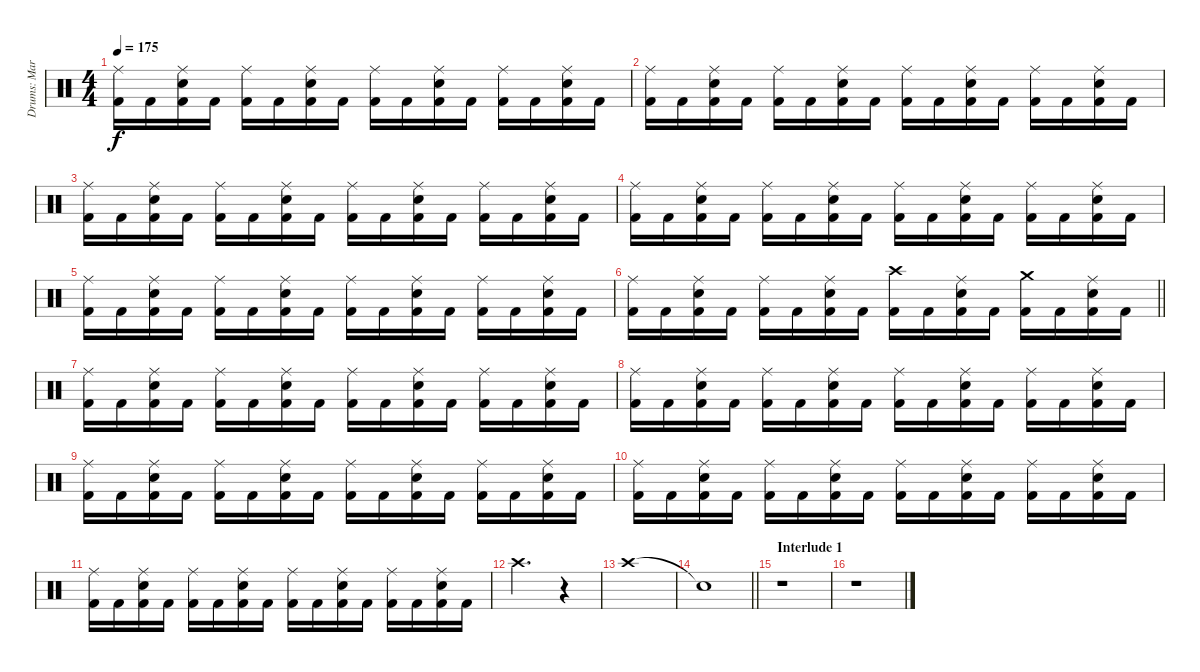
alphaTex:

\track ("Drums: Martin Herzinger" "Drums: Mar") {instrument percussion}
\staff {score}
\articulation defaults
\ts (4 4)
\tempo 175
\clef neutral
\ks aminor
("Ride (middle)" "Kick (hit) 2").16{dy f} "Kick (hit) 2".16 ("Ride (middle)" "Snare (hit) 2" "Kick (hit) 2").16 "Kick (hit) 2".16 ("Ride (middle)" "Kick (hit) 2").16 "Kick (hit) 2".16 ("Ride (middle)" "Snare (hit) 2" "Kick (hit) 2").16 "Kick (hit) 2".16 ("Ride (middle)" "Kick (hit) 2").16 "Kick (hit) 2".16 ("Ride (middle)" "Snare (hit) 2" "Kick (hit) 2").16 "Kick (hit) 2".16 ("Ride (middle)" "Kick (hit) 2").16 "Kick (hit) 2".16 ("Ride (middle)" "Snare (hit) 2" "Kick (hit) 2").16 "Kick (hit) 2".16 |
("Ride (middle)" "Kick (hit) 2").16 "Kick (hit) 2".16 ("Ride (middle)" "Snare (hit) 2" "Kick (hit) 2").16 "Kick (hit) 2".16 ("Ride (middle)" "Kick (hit) 2").16 "Kick (hit) 2".16 ("Ride (middle)" "Snare (hit) 2" "Kick (hit) 2").16 "Kick (hit) 2".16 ("Ride (middle)" "Kick (hit) 2").16 "Kick (hit) 2".16 ("Ride (middle)" "Snare (hit) 2" "Kick (hit) 2").16 "Kick (hit) 2".16 ("Ride (middle)" "Kick (hit) 2").16 "Kick (hit) 2".16 ("Ride (middle)" "Snare (hit) 2" "Kick (hit) 2").16 "Kick (hit) 2".16 |
("Ride (middle)" "Kick (hit) 2").16 "Kick (hit) 2".16 ("Ride (middle)" "Snare (hit) 2" "Kick (hit) 2").16 "Kick (hit) 2".16 ("Ride (middle)" "Kick (hit) 2").16 "Kick (hit) 2".16 ("Ride (middle)" "Snare (hit) 2" "Kick (hit) 2").16 "Kick (hit) 2".16 ("Ride (middle)" "Kick (hit) 2").16 "Kick (hit) 2".16 ("Ride (middle)" "Snare (hit) 2" "Kick (hit) 2").16 "Kick (hit) 2".16 ("Ride (middle)" "Kick (hit) 2").16 "Kick (hit) 2".16 ("Ride (middle)" "Snare (hit) 2" "Kick (hit) 2").16 "Kick (hit) 2".16 |
("Ride (middle)" "Kick (hit) 2").16 "Kick (hit) 2".16 ("Ride (middle)" "Snare (hit) 2" "Kick (hit) 2").16 "Kick (hit) 2".16 ("Ride (middle)" "Kick (hit) 2").16 "Kick (hit) 2".16 ("Ride (middle)" "Snare (hit) 2" "Kick (hit) 2").16 "Kick (hit) 2".16 ("Ride (middle)" "Kick (hit) 2").16 "Kick (hit) 2".16 ("Ride (middle)" "Snare (hit) 2" "Kick (hit) 2").16 "Kick (hit) 2".16 ("Ride (middle)" "Kick (hit) 2").16 "Kick (hit) 2".16 ("Ride (middle)" "Snare (hit) 2" "Kick (hit) 2").16 "Kick (hit) 2".16 |
("Ride (middle)" "Kick (hit) 2").16 "Kick (hit) 2".16 ("Ride (middle)" "Snare (hit) 2" "Kick (hit) 2").16 "Kick (hit) 2".16 ("Ride (middle)" "Kick (hit) 2").16 "Kick (hit) 2".16 ("Ride (middle)" "Snare (hit) 2" "Kick (hit) 2").16 "Kick (hit) 2".16 ("Ride (middle)" "Kick (hit) 2").16 "Kick (hit) 2".16 ("Ride (middle)" "Snare (hit) 2" "Kick (hit) 2").16 "Kick (hit) 2".16 ("Ride (middle)" "Kick (hit) 2").16 "Kick (hit) 2".16 ("Ride (middle)" "Snare (hit) 2" "Kick (hit) 2").16 "Kick (hit) 2".16 |
\barLineRight lightlight
("Ride (middle)" "Kick (hit) 2").16 "Kick (hit) 2".16 ("Ride (middle)" "Snare (hit) 2" "Kick (hit) 2").16 "Kick (hit) 2".16 ("Ride (middle)" "Kick (hit) 2").16 "Kick (hit) 2".16 ("Ride (middle)" "Snare (hit) 2" "Kick (hit) 2").16 "Kick (hit) 2".16 ("Crash high (hit)" "Kick (hit) 2").16 "Kick (hit) 2".16 ("Ride (middle)" "Snare (hit) 2" "Kick (hit) 2").16 "Kick (hit) 2".16 ("Crash medium (hit)" "Kick (hit) 2").16 "Kick (hit) 2".16 ("Ride (middle)" "Snare (hit) 2" "Kick (hit) 2").16 "Kick (hit) 2".16 |
("Ride (middle)" "Kick (hit) 2").16 "Kick (hit) 2".16 ("Ride (middle)" "Snare (hit) 2" "Kick (hit) 2").16 "Kick (hit) 2".16 ("Ride (middle)" "Kick (hit) 2").16 "Kick (hit) 2".16 ("Ride (middle)" "Snare (hit) 2" "Kick (hit) 2").16 "Kick (hit) 2".16 ("Ride (middle)" "Kick (hit) 2").16 "Kick (hit) 2".16 ("Ride (middle)" "Snare (hit) 2" "Kick (hit) 2").16 "Kick (hit) 2".16 ("Ride (middle)" "Kick (hit) 2").16 "Kick (hit) 2".16 ("Ride (middle)" "Snare (hit) 2" "Kick (hit) 2").16 "Kick (hit) 2".16 |
("Ride (middle)" "Kick (hit) 2").16 "Kick (hit) 2".16 ("Ride (middle)" "Snare (hit) 2" "Kick (hit) 2").16 "Kick (hit) 2".16 ("Ride (middle)" "Kick (hit) 2").16 "Kick (hit) 2".16 ("Ride (middle)" "Snare (hit) 2" "Kick (hit) 2").16 "Kick (hit) 2".16 ("Ride (middle)" "Kick (hit) 2").16 "Kick (hit) 2".16 ("Ride (middle)" "Snare (hit) 2" "Kick (hit) 2").16 "Kick (hit) 2".16 ("Ride (middle)" "Kick (hit) 2").16 "Kick (hit) 2".16 ("Ride (middle)" "Snare (hit) 2" "Kick (hit) 2").16 "Kick (hit) 2".16 |
("Ride (middle)" "Kick (hit) 2").16 "Kick (hit) 2".16 ("Ride (middle)" "Snare (hit) 2" "Kick (hit) 2").16 "Kick (hit) 2".16 ("Ride (middle)" "Kick (hit) 2").16 "Kick (hit) 2".16 ("Ride (middle)" "Snare (hit) 2" "Kick (hit) 2").16 "Kick (hit) 2".16 ("Ride (middle)" "Kick (hit) 2").16 "Kick (hit) 2".16 ("Ride (middle)" "Snare (hit) 2" "Kick (hit) 2").16 "Kick (hit) 2".16 ("Ride (middle)" "Kick (hit) 2").16 "Kick (hit) 2".16 ("Ride (middle)" "Snare (hit) 2" "Kick (hit) 2").16 "Kick (hit) 2".16 |
("Ride (middle)" "Kick (hit) 2").16 "Kick (hit) 2".16 ("Ride (middle)" "Snare (hit) 2" "Kick (hit) 2").16 "Kick (hit) 2".16 ("Ride (middle)" "Kick (hit) 2").16 "Kick (hit) 2".16 ("Ride (middle)" "Snare (hit) 2" "Kick (hit) 2").16 "Kick (hit) 2".16 ("Ride (middle)" "Kick (hit) 2").16 "Kick (hit) 2".16 ("Ride (middle)" "Snare (hit) 2" "Kick (hit) 2").16 "Kick (hit) 2".16 ("Ride (middle)" "Kick (hit) 2").16 "Kick (hit) 2".16 ("Ride (middle)" "Snare (hit) 2" "Kick (hit) 2").16 "Kick (hit) 2".16 |
("Ride (middle)" "Kick (hit) 2").16 "Kick (hit) 2".16 ("Ride (middle)" "Snare (hit) 2" "Kick (hit) 2").16 "Kick (hit) 2".16 ("Ride (middle)" "Kick (hit) 2").16 "Kick (hit) 2".16 ("Ride (middle)" "Snare (hit) 2" "Kick (hit) 2").16 "Kick (hit) 2".16 ("Ride (middle)" "Kick (hit) 2").16 "Kick (hit) 2".16 ("Ride (middle)" "Snare (hit) 2" "Kick (hit) 2").16 "Kick (hit) 2".16 ("Ride (middle)" "Kick (hit) 2").16 "Kick (hit) 2".16 ("Ride (middle)" "Snare (hit) 2" "Kick (hit) 2").16 "Kick (hit) 2".16 |
"Crash high (hit)".2{d} r.4 |
"Crash high (hit)".1 |
\barLineRight lightlight "Snare (hit)"{t}.1
|
\section ("" "Interlude 1")
r.1 |
r.1
